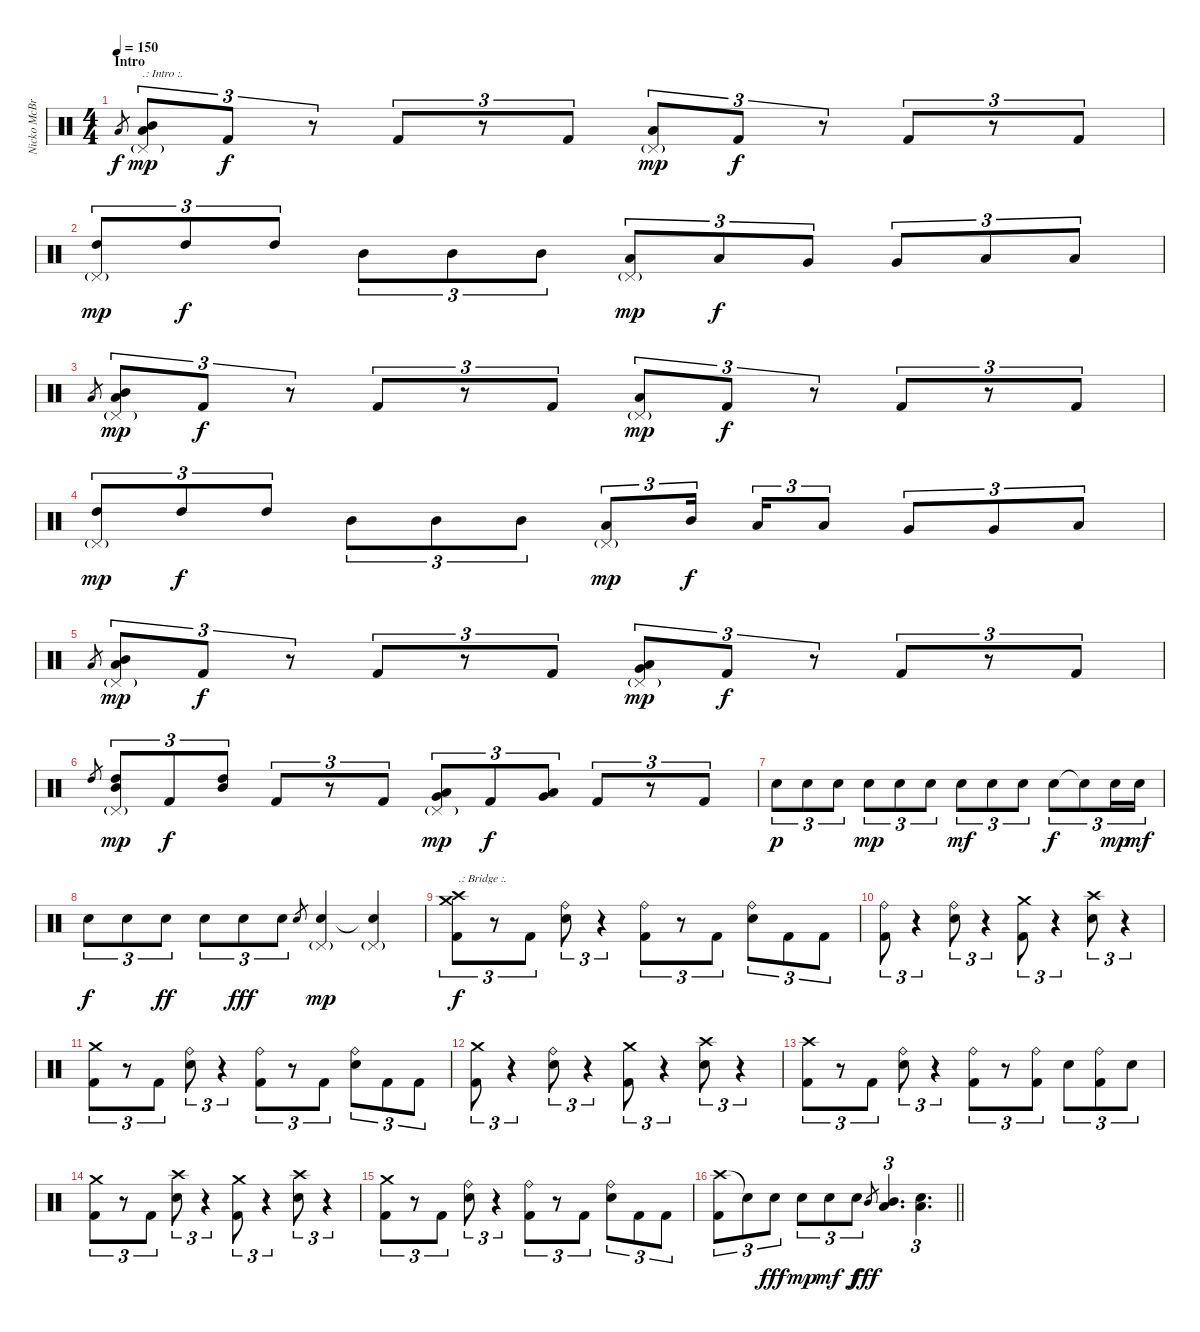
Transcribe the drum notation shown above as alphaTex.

\track ("Nicko McBrain" "Nicko McBr") {instrument percussion}
\staff {score}
\articulation defaults
\ts (4 4)
\section ("" "Intro")
\tempo 150
\clef neutral
\ks c "Low Tom (hit)".8{gr dy f}
("Mid Tom (hit)" "Low Tom (hit)" "Pedal Hi-Hat (hit)"{g}).8{tu (3 2) txt ".: Intro :." dy mp} "Kick (hit) 2".8{tu (3 2) dy f} r.8{tu (3 2)} "Kick (hit) 2".8{tu (3 2)} r.8{tu (3 2)} "Kick (hit) 2".8{tu (3 2)} ("Low Tom (hit)" "Pedal Hi-Hat (hit)"{g}).8{tu (3 2) dy mp} "Kick (hit) 2".8{tu (3 2) dy f} r.8{tu (3 2)} "Kick (hit) 2".8{tu (3 2)} r.8{tu (3 2)} "Kick (hit) 2".8{tu (3 2)} |
("High Tom (hit)" "Pedal Hi-Hat (hit)"{g}).8{tu (3 2) dy mp} "High Tom (hit)".8{tu (3 2) dy f} "High Tom (hit)".8{tu (3 2)} "Mid Tom (hit)".8{tu (3 2)} "Mid Tom (hit)".8{tu (3 2)} "Mid Tom (hit)".8{tu (3 2)} ("Low Tom (hit)" "Pedal Hi-Hat (hit)"{g}).8{tu (3 2) dy mp} "Low Tom (hit)".8{tu (3 2) dy f} "Very Low Tom (hit)".8{tu (3 2)} "Very Low Tom (hit)".8{tu (3 2)} "Low Floor Tom (hit)".8{tu (3 2)} "Low Floor Tom (hit)".8{tu (3 2)} |
"Low Tom (hit)".8{gr} ("Mid Tom (hit)" "Low Tom (hit)" "Pedal Hi-Hat (hit)"{g}).8{tu (3 2) dy mp} "Kick (hit) 2".8{tu (3 2) dy f} r.8{tu (3 2)} "Kick (hit) 2".8{tu (3 2)} r.8{tu (3 2)} "Kick (hit) 2".8{tu (3 2)} ("Low Tom (hit)" "Pedal Hi-Hat (hit)"{g}).8{tu (3 2) dy mp} "Kick (hit) 2".8{tu (3 2) dy f} r.8{tu (3 2)} "Kick (hit) 2".8{tu (3 2)} r.8{tu (3 2)} "Kick (hit) 2".8{tu (3 2)} |
("High Tom (hit)" "Pedal Hi-Hat (hit)"{g}).8{tu (3 2) dy mp} "High Tom (hit)".8{tu (3 2) dy f} "High Tom (hit)".8{tu (3 2)} "Mid Tom (hit)".8{tu (3 2)} "Mid Tom (hit)".8{tu (3 2)} "Mid Tom (hit)".8{tu (3 2)} ("Low Tom (hit)" "Pedal Hi-Hat (hit)"{g}).8{tu (3 2) dy mp} "Mid Tom (hit)".16{tu (3 2) dy f beam splitsecondary} "Low Tom (hit)".16{tu (3 2)} "Low Tom (hit)".8{tu (3 2)} "Very Low Tom (hit)".8{tu (3 2)} "Very Low Tom (hit)".8{tu (3 2)} "Low Floor Tom (hit)".8{tu (3 2)} |
"Low Tom (hit)".8{gr} ("Mid Tom (hit)" "Low Tom (hit)" "Pedal Hi-Hat (hit)"{g}).8{tu (3 2) dy mp} "Kick (hit) 2".8{tu (3 2) dy f} r.8{tu (3 2)} "Kick (hit) 2".8{tu (3 2)} r.8{tu (3 2)} "Kick (hit) 2".8{tu (3 2)} ("Low Tom (hit)" "Very Low Tom (hit)" "Pedal Hi-Hat (hit)"{g}).8{tu (3 2) dy mp} "Kick (hit) 2".8{tu (3 2) dy f} r.8{tu (3 2)} "Kick (hit) 2".8{tu (3 2)} r.8{tu (3 2)} "Kick (hit) 2".8{tu (3 2)} |
"High Tom (hit)".8{gr} ("High Tom (hit)" "Mid Tom (hit)" "Pedal Hi-Hat (hit)"{g}).8{tu (3 2) dy mp} "Kick (hit) 2".8{tu (3 2) dy f} ("High Tom (hit)" "Mid Tom (hit)").8{tu (3 2)} "Kick (hit) 2".8{tu (3 2)} r.8{tu (3 2)} "Kick (hit) 2".8{tu (3 2)} ("Low Tom (hit)" "Very Low Tom (hit)" "Pedal Hi-Hat (hit)"{g}).8{tu (3 2) dy mp} "Kick (hit) 2".8{tu (3 2) dy f} ("Very Low Tom (hit)" "Low Floor Tom (hit)").8{tu (3 2)} "Kick (hit) 2".8{tu (3 2)} r.8{tu (3 2)} "Kick (hit) 2".8{tu (3 2)} |
"Electric Snare (hit)".8{tu (3 2) dy p} "Electric Snare (hit)".8{tu (3 2)} "Electric Snare (hit)".8{tu (3 2)} "Electric Snare (hit)".8{tu (3 2) dy mp} "Electric Snare (hit)".8{tu (3 2)} "Electric Snare (hit)".8{tu (3 2)} "Electric Snare (hit)".8{tu (3 2) dy mf} "Electric Snare (hit)".8{tu (3 2)} "Electric Snare (hit)".8{tu (3 2)} "Electric Snare (hit)".8{tu (3 2) dy f} "Electric Snare (hit)"{t}.8{tu (3 2)} "Electric Snare (hit)".16{tu (3 2) dy mp} "Electric Snare (hit)".16{tu (3 2) dy mf} |
"Electric Snare (hit)".8{tu (3 2) dy f} "Electric Snare (hit)".8{tu (3 2)} "Electric Snare (hit)".8{tu (3 2) dy ff} "Electric Snare (hit)".8{tu (3 2)} "Electric Snare (hit)".8{tu (3 2) dy fff} "Electric Snare (hit)".8{tu (3 2)} "Electric Snare (hit)".8{gr} ("Electric Snare (hit)" "Pedal Hi-Hat (hit)"{g}).4{dy mp} ("Snare (hit)"{t} "Pedal Hi-Hat (hit)"{g}).4 |
("Crash high (hit)" "Crash medium (hit)" "Kick (hit) 2").8{tu (3 2) txt ".: Bridge :." dy f} r.8{tu (3 2)} "Kick (hit) 2".8{tu (3 2)} ("Ride (bell)" "Electric Snare (hit)").8{tu (3 2)} r.4{tu (3 2)} ("Kick (hit) 2" "Ride (bell)").8{tu (3 2)} r.8{tu (3 2)} "Kick (hit) 2".8{tu (3 2)} ("Ride (bell)" "Electric Snare (hit)").8{tu (3 2)} "Kick (hit) 2".8{tu (3 2)} "Kick (hit) 2".8{tu (3 2)} |
("Ride (bell)" "Kick (hit) 2").8{tu (3 2)} r.4{tu (3 2)} ("Ride (bell)" "Electric Snare (hit)").8{tu (3 2)} r.4{tu (3 2)} ("Crash medium (hit)" "Kick (hit) 2").8{tu (3 2)} r.4{tu (3 2)} ("Crash high (hit)" "Electric Snare (hit)").8{tu (3 2)} r.4{tu (3 2)} |
("Crash medium (hit)" "Kick (hit) 2").8{tu (3 2)} r.8{tu (3 2)} "Kick (hit) 2".8{tu (3 2)} ("Ride (bell)" "Electric Snare (hit)").8{tu (3 2)} r.4{tu (3 2)} ("Kick (hit) 2" "Ride (bell)").8{tu (3 2)} r.8{tu (3 2)} "Kick (hit) 2".8{tu (3 2)} ("Ride (bell)" "Electric Snare (hit)").8{tu (3 2)} "Kick (hit) 2".8{tu (3 2)} "Kick (hit) 2".8{tu (3 2)} |
("Crash medium (hit)" "Kick (hit) 2").8{tu (3 2)} r.4{tu (3 2)} ("Ride (bell)" "Electric Snare (hit)").8{tu (3 2)} r.4{tu (3 2)} ("Crash medium (hit)" "Kick (hit) 2").8{tu (3 2)} r.4{tu (3 2)} ("Crash high (hit)" "Electric Snare (hit)").8{tu (3 2)} r.4{tu (3 2)} |
("Crash high (hit)" "Kick (hit) 2").8{tu (3 2)} r.8{tu (3 2)} "Kick (hit) 2".8{tu (3 2)} ("Ride (bell)" "Electric Snare (hit)").8{tu (3 2)} r.4{tu (3 2)} ("Kick (hit) 2" "Ride (bell)").8{tu (3 2)} r.8{tu (3 2)} ("Ride (bell)" "Kick (hit) 2").8{tu (3 2)} "Electric Snare (hit)".8{tu (3 2)} ("Kick (hit) 2" "Ride (bell)").8{tu (3 2)} "Electric Snare (hit)".8{tu (3 2)} |
("Crash medium (hit)" "Kick (hit) 2").8{tu (3 2)} r.8{tu (3 2)} "Kick (hit) 2".8{tu (3 2)} ("Crash high (hit)" "Electric Snare (hit)").8{tu (3 2)} r.4{tu (3 2)} ("Crash medium (hit)" "Kick (hit) 2").8{tu (3 2)} r.4{tu (3 2)} ("Crash high (hit)" "Electric Snare (hit)").8{tu (3 2)} r.4{tu (3 2)} |
("Crash medium (hit)" "Kick (hit) 2").8{tu (3 2)} r.8{tu (3 2)} "Kick (hit) 2".8{tu (3 2)} ("Ride (bell)" "Electric Snare (hit)").8{tu (3 2)} r.4{tu (3 2)} ("Kick (hit) 2" "Ride (bell)").8{tu (3 2)} r.8{tu (3 2)} "Kick (hit) 2".8{tu (3 2)} ("Ride (bell)" "Electric Snare (hit)").8{tu (3 2)} "Kick (hit) 2".8{tu (3 2)} "Kick (hit) 2".8{tu (3 2)} |
\barLineRight lightlight
("Crash high (hit)" "Kick (hit) 2").8{tu (3 2)} "Snare (hit)"{t}.8{tu (3 2)} "Electric Snare (hit)".8{tu (3 2) dy fff} "Electric Snare (hit)".8{tu (3 2) dy mp} "Electric Snare (hit)".8{tu (3 2) dy mf} "Electric Snare (hit)".8{tu (3 2) dy f} "Mid Tom (hit)".8{gr dy fff} ("Mid Tom (hit)" "Low Tom (hit)").4{d tu (3 2)} ("Electric Snare (hit)" "Low Floor Tom (hit)").4{d tu (3 2)}
